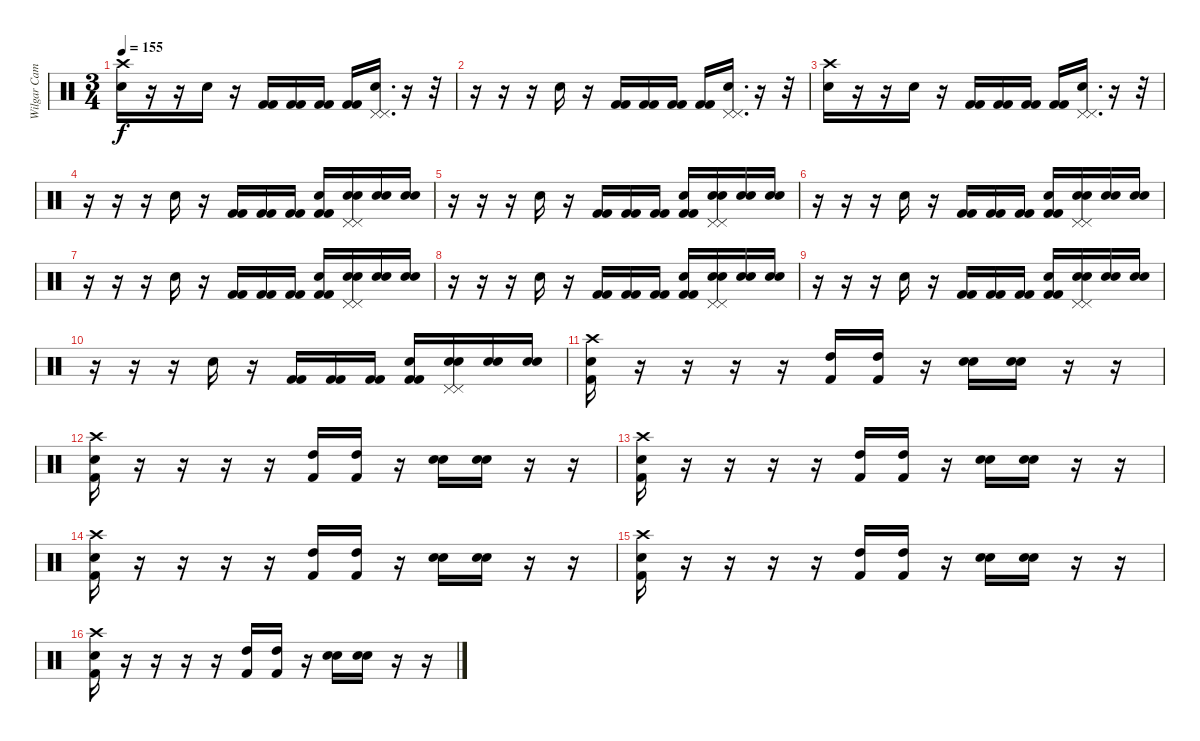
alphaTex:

\track ("Wilgar Campbell" "Wilgar Cam") {instrument percussion}
\staff {score}
\articulation defaults
\ts (3 4)
\tempo 155
\clef neutral
\ks c
("Electric Snare (hit)" "Crash high (hit)").16{dy f} r.16 r.16 "Electric Snare (hit)".16 r.16 ("Kick (hit) 2" "Kick (hit) 2").16 ("Kick (hit) 2" "Kick (hit) 2").16 ("Kick (hit) 2" "Kick (hit) 2").16 ("Kick (hit) 2" "Kick (hit) 2").16 ("Pedal Hi-Hat (hit)" "Electric Snare (hit)" "Pedal Hi-Hat (hit)").16{d} r.16 r.32 |
r.16 r.16 r.16 "Electric Snare (hit)".16 r.16 ("Kick (hit) 2" "Kick (hit) 2").16 ("Kick (hit) 2" "Kick (hit) 2").16 ("Kick (hit) 2" "Kick (hit) 2").16 ("Kick (hit) 2" "Kick (hit) 2").16 ("Pedal Hi-Hat (hit)" "Electric Snare (hit)" "Pedal Hi-Hat (hit)").16{d} r.16 r.32 |
("Electric Snare (hit)" "Crash high (hit)").16 r.16 r.16 "Electric Snare (hit)".16 r.16 ("Kick (hit) 2" "Kick (hit) 2").16 ("Kick (hit) 2" "Kick (hit) 2").16 ("Kick (hit) 2" "Kick (hit) 2").16 ("Kick (hit) 2" "Kick (hit) 2").16 ("Pedal Hi-Hat (hit)" "Electric Snare (hit)" "Pedal Hi-Hat (hit)").16{d} r.16 r.32 |
r.16 r.16 r.16 "Electric Snare (hit)".16 r.16 ("Kick (hit) 2" "Kick (hit) 2").16 ("Kick (hit) 2" "Kick (hit) 2").16 ("Kick (hit) 2" "Kick (hit) 2").16 ("Kick (hit) 2" "Kick (hit) 2" "Electric Snare (hit)").16 ("Pedal Hi-Hat (hit)" "Electric Snare (hit)" "Pedal Hi-Hat (hit)" "Electric Snare (hit)").16 ("Electric Snare (hit)" "Electric Snare (hit)").16 ("Electric Snare (hit)" "Electric Snare (hit)").16 |
r.16 r.16 r.16 "Electric Snare (hit)".16 r.16 ("Kick (hit) 2" "Kick (hit) 2").16 ("Kick (hit) 2" "Kick (hit) 2").16 ("Kick (hit) 2" "Kick (hit) 2").16 ("Kick (hit) 2" "Kick (hit) 2" "Electric Snare (hit)").16 ("Pedal Hi-Hat (hit)" "Electric Snare (hit)" "Pedal Hi-Hat (hit)" "Electric Snare (hit)").16 ("Electric Snare (hit)" "Electric Snare (hit)").16 ("Electric Snare (hit)" "Electric Snare (hit)").16 |
r.16 r.16 r.16 "Electric Snare (hit)".16 r.16 ("Kick (hit) 2" "Kick (hit) 2").16 ("Kick (hit) 2" "Kick (hit) 2").16 ("Kick (hit) 2" "Kick (hit) 2").16 ("Kick (hit) 2" "Kick (hit) 2" "Electric Snare (hit)").16 ("Pedal Hi-Hat (hit)" "Electric Snare (hit)" "Pedal Hi-Hat (hit)" "Electric Snare (hit)").16 ("Electric Snare (hit)" "Electric Snare (hit)").16 ("Electric Snare (hit)" "Electric Snare (hit)").16 |
r.16 r.16 r.16 "Electric Snare (hit)".16 r.16 ("Kick (hit) 2" "Kick (hit) 2").16 ("Kick (hit) 2" "Kick (hit) 2").16 ("Kick (hit) 2" "Kick (hit) 2").16 ("Kick (hit) 2" "Kick (hit) 2" "Electric Snare (hit)").16 ("Pedal Hi-Hat (hit)" "Electric Snare (hit)" "Pedal Hi-Hat (hit)" "Electric Snare (hit)").16 ("Electric Snare (hit)" "Electric Snare (hit)").16 ("Electric Snare (hit)" "Electric Snare (hit)").16 |
r.16 r.16 r.16 "Electric Snare (hit)".16 r.16 ("Kick (hit) 2" "Kick (hit) 2").16 ("Kick (hit) 2" "Kick (hit) 2").16 ("Kick (hit) 2" "Kick (hit) 2").16 ("Kick (hit) 2" "Kick (hit) 2" "Electric Snare (hit)").16 ("Pedal Hi-Hat (hit)" "Electric Snare (hit)" "Pedal Hi-Hat (hit)" "Electric Snare (hit)").16 ("Electric Snare (hit)" "Electric Snare (hit)").16 ("Electric Snare (hit)" "Electric Snare (hit)").16 |
r.16 r.16 r.16 "Electric Snare (hit)".16 r.16 ("Kick (hit) 2" "Kick (hit) 2").16 ("Kick (hit) 2" "Kick (hit) 2").16 ("Kick (hit) 2" "Kick (hit) 2").16 ("Kick (hit) 2" "Kick (hit) 2" "Electric Snare (hit)").16 ("Pedal Hi-Hat (hit)" "Electric Snare (hit)" "Pedal Hi-Hat (hit)" "Electric Snare (hit)").16 ("Electric Snare (hit)" "Electric Snare (hit)").16 ("Electric Snare (hit)" "Electric Snare (hit)").16 |
r.16 r.16 r.16 "Electric Snare (hit)".16 r.16 ("Kick (hit) 2" "Kick (hit) 2").16 ("Kick (hit) 2" "Kick (hit) 2").16 ("Kick (hit) 2" "Kick (hit) 2").16 ("Kick (hit) 2" "Kick (hit) 2" "Electric Snare (hit)").16 ("Pedal Hi-Hat (hit)" "Electric Snare (hit)" "Pedal Hi-Hat (hit)" "Electric Snare (hit)").16 ("Electric Snare (hit)" "Electric Snare (hit)").16 ("Electric Snare (hit)" "Electric Snare (hit)").16 |
("Kick (hit) 2" "Snare (hit) 2" "Crash high (hit)").16 r.16 r.16 r.16 r.16 ("High Tom (hit)" "Kick (hit) 2").16 ("High Tom (hit)" "Kick (hit) 2").16 r.16 ("Electric Snare (hit)" "Electric Snare (hit)").16 ("Electric Snare (hit)" "Electric Snare (hit)").16 r.16 r.16 |
("Kick (hit) 2" "Snare (hit) 2" "Crash high (hit)").16 r.16 r.16 r.16 r.16 ("High Tom (hit)" "Kick (hit) 2").16 ("High Tom (hit)" "Kick (hit) 2").16 r.16 ("Electric Snare (hit)" "Electric Snare (hit)").16 ("Electric Snare (hit)" "Electric Snare (hit)").16 r.16 r.16 |
("Kick (hit) 2" "Snare (hit) 2" "Crash high (hit)").16 r.16 r.16 r.16 r.16 ("High Tom (hit)" "Kick (hit) 2").16 ("High Tom (hit)" "Kick (hit) 2").16 r.16 ("Electric Snare (hit)" "Electric Snare (hit)").16 ("Electric Snare (hit)" "Electric Snare (hit)").16 r.16 r.16 |
("Kick (hit) 2" "Snare (hit) 2" "Crash high (hit)").16 r.16 r.16 r.16 r.16 ("High Tom (hit)" "Kick (hit) 2").16 ("High Tom (hit)" "Kick (hit) 2").16 r.16 ("Electric Snare (hit)" "Electric Snare (hit)").16 ("Electric Snare (hit)" "Electric Snare (hit)").16 r.16 r.16 |
("Kick (hit) 2" "Snare (hit) 2" "Crash high (hit)").16 r.16 r.16 r.16 r.16 ("High Tom (hit)" "Kick (hit) 2").16 ("High Tom (hit)" "Kick (hit) 2").16 r.16 ("Electric Snare (hit)" "Electric Snare (hit)").16 ("Electric Snare (hit)" "Electric Snare (hit)").16 r.16 r.16 |
("Kick (hit) 2" "Snare (hit) 2" "Crash high (hit)").16 r.16 r.16 r.16 r.16 ("High Tom (hit)" "Kick (hit) 2").16 ("High Tom (hit)" "Kick (hit) 2").16 r.16 ("Electric Snare (hit)" "Electric Snare (hit)").16 ("Electric Snare (hit)" "Electric Snare (hit)").16 r.16 r.16
